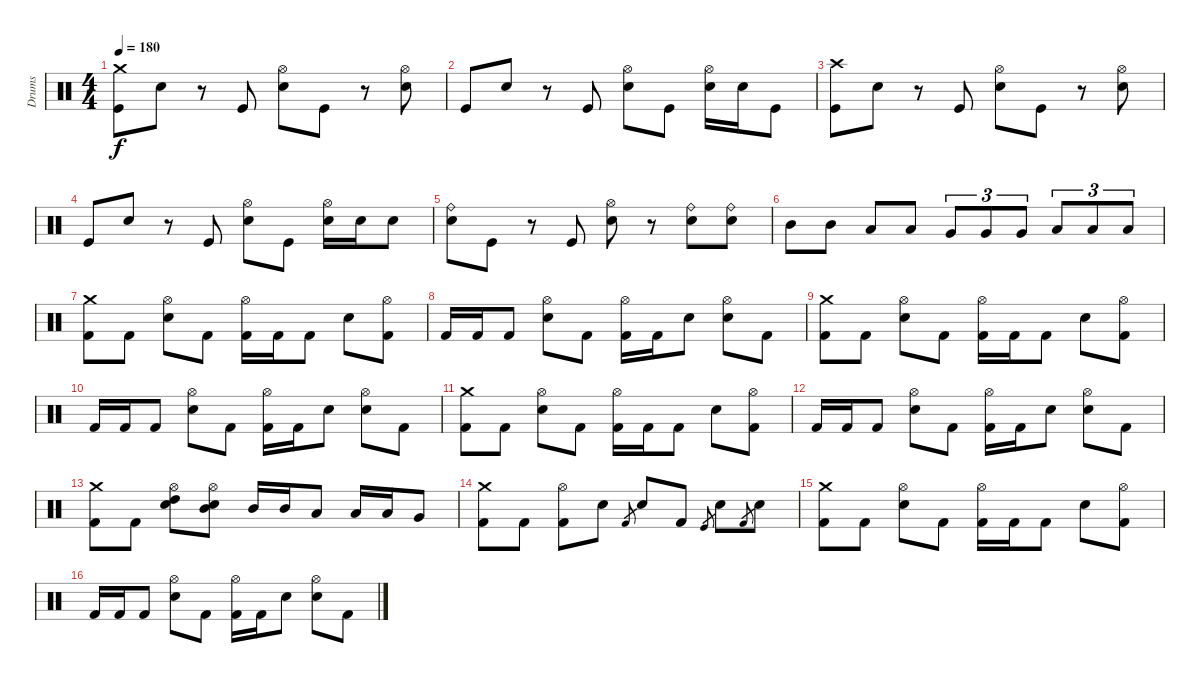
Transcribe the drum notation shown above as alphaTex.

\track ("Drums" "Drums") {instrument percussion}
\staff {score}
\articulation defaults
\ts (4 4)
\tempo 180
\clef neutral
\ks c
("Crash medium (hit)" "Kick (hit)").8{dy f} "Electric Snare (hit)".8 r.8 "Kick (hit)".8 ("Hi-Hat (open)" "Electric Snare (hit)").8 "Kick (hit)".8 r.8 ("Hi-Hat (open)" "Electric Snare (hit)").8 |
"Kick (hit)".8 "Electric Snare (hit)".8 r.8 "Kick (hit)".8 ("Hi-Hat (open)" "Electric Snare (hit)").8 "Kick (hit)".8 ("Hi-Hat (open)" "Electric Snare (hit)").16 "Electric Snare (hit)".16 "Kick (hit)".8 |
("Crash high (hit)" "Kick (hit)").8 "Electric Snare (hit)".8 r.8 "Kick (hit)".8 ("Hi-Hat (open)" "Electric Snare (hit)").8 "Kick (hit)".8 r.8 ("Hi-Hat (open)" "Electric Snare (hit)").8 |
"Kick (hit)".8 "Electric Snare (hit)".8 r.8 "Kick (hit)".8 ("Hi-Hat (open)" "Electric Snare (hit)").8 "Kick (hit)".8 ("Hi-Hat (open)" "Electric Snare (hit)").16 "Electric Snare (hit)".16 "Electric Snare (hit)".8 |
("Ride (bell)" "Snare (hit) 2").8 "Kick (hit)".8 r.8 "Kick (hit)".8 ("Hi-Hat (open)" "Electric Snare (hit)").8 r.8 ("Ride (bell)" "Snare (hit) 2").8 ("Ride (bell)" "Snare (hit) 2").8 |
"Mid Tom (hit)".8 "Mid Tom (hit)".8 "Low Tom (hit)".8 "Low Tom (hit)".8 "Very Low Tom (hit)".8{tu (3 2)} "Very Low Tom (hit)".8{tu (3 2)} "Very Low Tom (hit)".8{tu (3 2)} "Low Floor Tom (hit)".8{tu (3 2)} "Low Floor Tom (hit)".8{tu (3 2)} "Low Floor Tom (hit)".8{tu (3 2)} |
("Crash medium (hit)" "Kick (hit) 2").8 "Kick (hit) 2".8 ("Hi-Hat (open)" "Electric Snare (hit)").8 "Kick (hit) 2".8 ("Hi-Hat (open)" "Kick (hit) 2").16 "Kick (hit) 2".16 "Kick (hit) 2".8 "Electric Snare (hit)".8 ("Hi-Hat (open)" "Kick (hit) 2").8 |
"Kick (hit) 2".16 "Kick (hit) 2".16 "Kick (hit) 2".8 ("Hi-Hat (open)" "Electric Snare (hit)").8 "Kick (hit) 2".8 ("Hi-Hat (open)" "Kick (hit) 2").16 "Kick (hit) 2".16 "Electric Snare (hit)".8 ("Hi-Hat (open)" "Snare (hit) 2").8 "Kick (hit) 2".8 |
("Crash medium (hit)" "Kick (hit) 2").8 "Kick (hit) 2".8 ("Hi-Hat (open)" "Electric Snare (hit)").8 "Kick (hit) 2".8 ("Hi-Hat (open)" "Kick (hit) 2").16 "Kick (hit) 2".16 "Kick (hit) 2".8 "Electric Snare (hit)".8 ("Hi-Hat (open)" "Kick (hit) 2").8 |
"Kick (hit) 2".16 "Kick (hit) 2".16 "Kick (hit) 2".8 ("Hi-Hat (open)" "Electric Snare (hit)").8 "Kick (hit) 2".8 ("Hi-Hat (open)" "Kick (hit) 2").16 "Kick (hit) 2".16 "Electric Snare (hit)".8 ("Hi-Hat (open)" "Snare (hit) 2").8 "Kick (hit) 2".8 |
("Crash medium (hit)" "Kick (hit) 2").8 "Kick (hit) 2".8 ("Hi-Hat (open)" "Electric Snare (hit)").8 "Kick (hit) 2".8 ("Hi-Hat (open)" "Kick (hit) 2").16 "Kick (hit) 2".16 "Kick (hit) 2".8 "Electric Snare (hit)".8 ("Hi-Hat (open)" "Kick (hit) 2").8 |
"Kick (hit) 2".16 "Kick (hit) 2".16 "Kick (hit) 2".8 ("Hi-Hat (open)" "Electric Snare (hit)").8 "Kick (hit) 2".8 ("Hi-Hat (open)" "Kick (hit) 2").16 "Kick (hit) 2".16 "Electric Snare (hit)".8 ("Hi-Hat (open)" "Snare (hit) 2").8 "Kick (hit) 2".8 |
("Crash medium (hit)" "Kick (hit) 2").8 "Kick (hit) 2".8 ("Hi-Hat (open)" "High Tom (hit)" "Electric Snare (hit)").8 ("Hi-Hat (open)" "Mid Tom (hit)" "Electric Snare (hit)").8 "Mid Tom (hit)".16 "Mid Tom (hit)".16 "Low Tom (hit)".8 "Low Tom (hit)".16 "Low Tom (hit)".16 "Very Low Tom (hit)".8 |
("Kick (hit) 2" "Crash medium (hit)").8 "Kick (hit) 2".8 ("Kick (hit) 2" "Hi-Hat (open)").8 "Electric Snare (hit)".8 "Kick (hit) 2".8{gr} "Electric Snare (hit)".8 "Kick (hit) 2".8 "Kick (hit)".8{gr} "Snare (hit) 2".8 "Kick (hit) 2".8{gr} "Electric Snare (hit)".8 |
("Crash medium (hit)" "Kick (hit) 2").8 "Kick (hit) 2".8 ("Hi-Hat (open)" "Electric Snare (hit)").8 "Kick (hit) 2".8 ("Hi-Hat (open)" "Kick (hit) 2").16 "Kick (hit) 2".16 "Kick (hit) 2".8 "Electric Snare (hit)".8 ("Hi-Hat (open)" "Kick (hit) 2").8 |
"Kick (hit) 2".16 "Kick (hit) 2".16 "Kick (hit) 2".8 ("Hi-Hat (open)" "Electric Snare (hit)").8 "Kick (hit) 2".8 ("Hi-Hat (open)" "Kick (hit) 2").16 "Kick (hit) 2".16 "Electric Snare (hit)".8 ("Hi-Hat (open)" "Snare (hit) 2").8 "Kick (hit) 2".8
